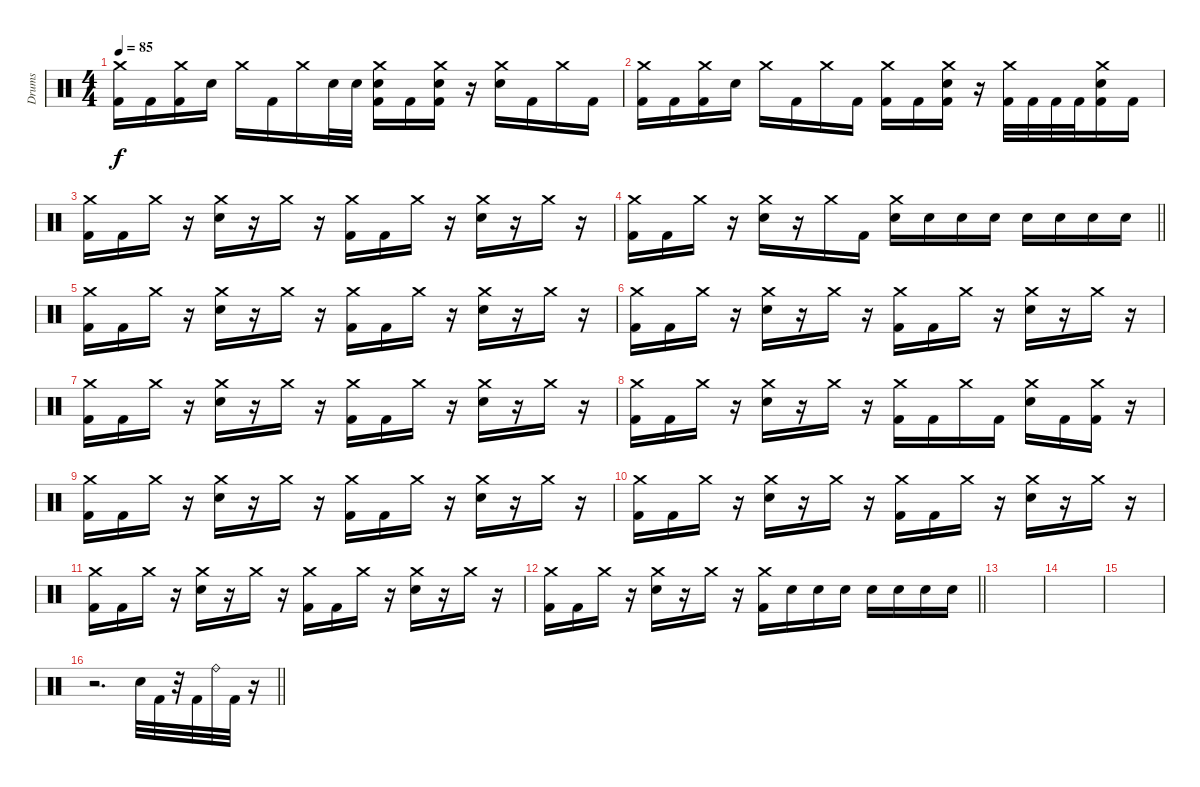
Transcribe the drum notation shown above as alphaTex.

\track ("Drums" "Drums") {instrument percussion}
\staff {score}
\articulation defaults
\ts (4 4)
\tempo 85
\clef neutral
\ks c
("Crash medium (hit)" "Kick (hit) 2").16{dy f} "Kick (hit) 2".16 ("Crash medium (hit)" "Kick (hit) 2").16 "Snare (hit) 2".16 "Crash medium (hit)".16 "Kick (hit) 2".16 "Crash medium (hit)".16 "Snare (hit) 2".32 "Snare (hit) 2".32 ("Crash medium (hit)" "Snare (hit) 2" "Kick (hit) 2").16 "Kick (hit) 2".16 ("Crash medium (hit)" "Snare (hit) 2" "Kick (hit) 2").16 r.16 ("Crash medium (hit)" "Snare (hit) 2").16 "Kick (hit) 2".16 "Crash medium (hit)".16 "Kick (hit) 2".16 |
("Crash medium (hit)" "Kick (hit) 2").16 "Kick (hit) 2".16 ("Crash medium (hit)" "Kick (hit) 2").16 "Snare (hit) 2".16 "Crash medium (hit)".16 "Kick (hit) 2".16 "Crash medium (hit)".16 "Kick (hit) 2".16 ("Crash medium (hit)" "Kick (hit) 2").16 "Kick (hit) 2".16 ("Crash medium (hit)" "Snare (hit) 2" "Kick (hit) 2").16 r.16 ("Crash medium (hit)" "Kick (hit) 2").32 "Kick (hit) 2".32 "Kick (hit) 2".32 "Kick (hit) 2".32 ("Crash medium (hit)" "Snare (hit) 2" "Kick (hit) 2").16 "Kick (hit) 2".16 |
("Crash medium (hit)" "Kick (hit) 2").16 "Kick (hit) 2".16 "Crash medium (hit)".16 r.16 ("Crash medium (hit)" "Snare (hit) 2").16 r.16 "Crash medium (hit)".16 r.16 ("Crash medium (hit)" "Kick (hit) 2").16 "Kick (hit) 2".16 "Crash medium (hit)".16 r.16 ("Crash medium (hit)" "Snare (hit) 2").16 r.16 "Crash medium (hit)".16 r.16 |
\barLineRight lightlight
("Crash medium (hit)" "Kick (hit) 2").16 "Kick (hit) 2".16 "Crash medium (hit)".16 r.16 ("Crash medium (hit)" "Snare (hit) 2").16 r.16 "Crash medium (hit)".16 "Kick (hit) 2".16 ("Crash medium (hit)" "Snare (hit) 2").16 "Snare (hit) 2".16 "Snare (hit) 2".16 "Snare (hit) 2".16 "Snare (hit) 2".16 "Snare (hit) 2".16 "Snare (hit) 2".16 "Snare (hit) 2".16 |
("Crash medium (hit)" "Kick (hit) 2").16 "Kick (hit) 2".16 "Crash medium (hit)".16 r.16 ("Crash medium (hit)" "Snare (hit) 2").16 r.16 "Crash medium (hit)".16 r.16 ("Crash medium (hit)" "Kick (hit) 2").16 "Kick (hit) 2".16 "Crash medium (hit)".16 r.16 ("Crash medium (hit)" "Snare (hit) 2").16 r.16 "Crash medium (hit)".16 r.16 |
("Crash medium (hit)" "Kick (hit) 2").16 "Kick (hit) 2".16 "Crash medium (hit)".16 r.16 ("Crash medium (hit)" "Snare (hit) 2").16 r.16 "Crash medium (hit)".16 r.16 ("Crash medium (hit)" "Kick (hit) 2").16 "Kick (hit) 2".16 "Crash medium (hit)".16 r.16 ("Crash medium (hit)" "Snare (hit) 2").16 r.16 "Crash medium (hit)".16 r.16 |
("Crash medium (hit)" "Kick (hit) 2").16 "Kick (hit) 2".16 "Crash medium (hit)".16 r.16 ("Crash medium (hit)" "Snare (hit) 2").16 r.16 "Crash medium (hit)".16 r.16 ("Crash medium (hit)" "Kick (hit) 2").16 "Kick (hit) 2".16 "Crash medium (hit)".16 r.16 ("Crash medium (hit)" "Snare (hit) 2").16 r.16 "Crash medium (hit)".16 r.16 |
("Crash medium (hit)" "Kick (hit) 2").16 "Kick (hit) 2".16 "Crash medium (hit)".16 r.16 ("Crash medium (hit)" "Snare (hit) 2").16 r.16 "Crash medium (hit)".16 r.16 ("Crash medium (hit)" "Kick (hit) 2").16 "Kick (hit) 2".16 "Crash medium (hit)".16 "Kick (hit) 2".16 ("Crash medium (hit)" "Snare (hit) 2").16 "Kick (hit) 2".16 ("Crash medium (hit)" "Kick (hit) 2").16 r.16 |
("Crash medium (hit)" "Kick (hit) 2").16 "Kick (hit) 2".16 "Crash medium (hit)".16 r.16 ("Crash medium (hit)" "Snare (hit) 2").16 r.16 "Crash medium (hit)".16 r.16 ("Crash medium (hit)" "Kick (hit) 2").16 "Kick (hit) 2".16 "Crash medium (hit)".16 r.16 ("Crash medium (hit)" "Snare (hit) 2").16 r.16 "Crash medium (hit)".16 r.16 |
("Crash medium (hit)" "Kick (hit) 2").16 "Kick (hit) 2".16 "Crash medium (hit)".16 r.16 ("Crash medium (hit)" "Snare (hit) 2").16 r.16 "Crash medium (hit)".16 r.16 ("Crash medium (hit)" "Kick (hit) 2").16 "Kick (hit) 2".16 "Crash medium (hit)".16 r.16 ("Crash medium (hit)" "Snare (hit) 2").16 r.16 "Crash medium (hit)".16 r.16 |
("Crash medium (hit)" "Kick (hit) 2").16 "Kick (hit) 2".16 "Crash medium (hit)".16 r.16 ("Crash medium (hit)" "Snare (hit) 2").16 r.16 "Crash medium (hit)".16 r.16 ("Crash medium (hit)" "Kick (hit) 2").16 "Kick (hit) 2".16 "Crash medium (hit)".16 r.16 ("Crash medium (hit)" "Snare (hit) 2").16 r.16 "Crash medium (hit)".16 r.16 |
\barLineRight lightlight
("Crash medium (hit)" "Kick (hit) 2").16 "Kick (hit) 2".16 "Crash medium (hit)".16 r.16 ("Crash medium (hit)" "Snare (hit) 2").16 r.16 "Crash medium (hit)".16 r.16 ("Crash medium (hit)" "Kick (hit) 2").16 "Snare (hit) 2".16 "Snare (hit) 2".16 "Snare (hit) 2".16 "Snare (hit) 2".16 "Snare (hit) 2".16 "Snare (hit) 2".16 "Snare (hit) 2".16 |
|
|
|
\barLineRight lightlight
r.2{d} "Snare (hit) 2".32 "Kick (hit) 2".32 r.32 "Kick (hit) 2".32 "Ride (bell)".32 "Kick (hit) 2".32 r.16
